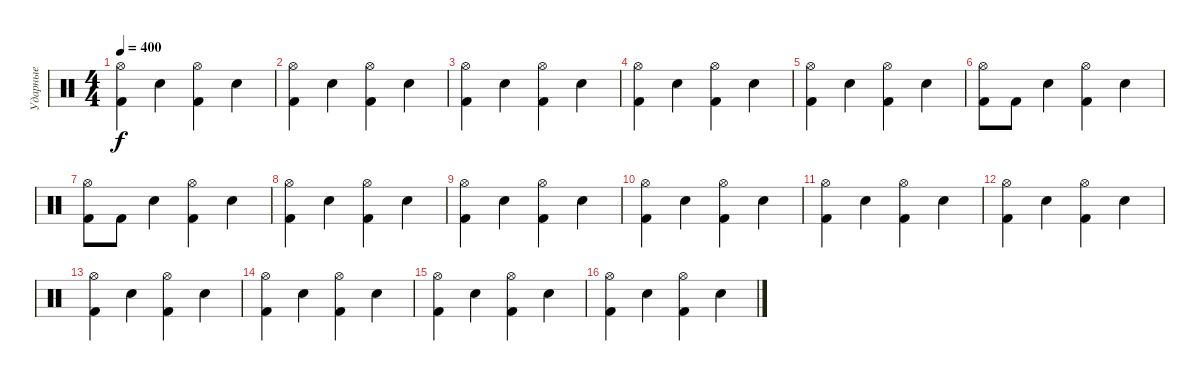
\track ("Ударные" "Ударные") {instrument percussion}
\staff {score}
\articulation defaults
\ts (4 4)
\tempo 400
\clef neutral
\ks c
("Kick (hit) 2" "Hi-Hat (open)").4{dy f} "Electric Snare (hit)".4 ("Kick (hit) 2" "Hi-Hat (open)").4 "Electric Snare (hit)".4 |
("Kick (hit) 2" "Hi-Hat (open)").4 "Electric Snare (hit)".4 ("Kick (hit) 2" "Hi-Hat (open)").4 "Electric Snare (hit)".4 |
("Kick (hit) 2" "Hi-Hat (open)").4 "Electric Snare (hit)".4 ("Kick (hit) 2" "Hi-Hat (open)").4 "Electric Snare (hit)".4 |
("Kick (hit) 2" "Hi-Hat (open)").4 "Electric Snare (hit)".4 ("Kick (hit) 2" "Hi-Hat (open)").4 "Electric Snare (hit)".4 |
("Kick (hit) 2" "Hi-Hat (open)").4 "Electric Snare (hit)".4 ("Kick (hit) 2" "Hi-Hat (open)").4 "Electric Snare (hit)".4 |
("Kick (hit) 2" "Hi-Hat (open)").8 "Kick (hit) 2".8 "Electric Snare (hit)".4 ("Kick (hit) 2" "Hi-Hat (open)").4 "Electric Snare (hit)".4 |
("Kick (hit) 2" "Hi-Hat (open)").8 "Kick (hit) 2".8 "Electric Snare (hit)".4 ("Kick (hit) 2" "Hi-Hat (open)").4 "Electric Snare (hit)".4 |
("Kick (hit) 2" "Hi-Hat (open)").4 "Electric Snare (hit)".4 ("Kick (hit) 2" "Hi-Hat (open)").4 "Electric Snare (hit)".4 |
("Kick (hit) 2" "Hi-Hat (open)").4 "Electric Snare (hit)".4 ("Kick (hit) 2" "Hi-Hat (open)").4 "Electric Snare (hit)".4 |
("Kick (hit) 2" "Hi-Hat (open)").4 "Electric Snare (hit)".4 ("Kick (hit) 2" "Hi-Hat (open)").4 "Electric Snare (hit)".4 |
("Kick (hit) 2" "Hi-Hat (open)").4 "Electric Snare (hit)".4 ("Kick (hit) 2" "Hi-Hat (open)").4 "Electric Snare (hit)".4 |
("Kick (hit) 2" "Hi-Hat (open)").4 "Electric Snare (hit)".4 ("Kick (hit) 2" "Hi-Hat (open)").4 "Electric Snare (hit)".4 |
("Kick (hit) 2" "Hi-Hat (open)").4 "Electric Snare (hit)".4 ("Kick (hit) 2" "Hi-Hat (open)").4 "Electric Snare (hit)".4 |
("Kick (hit) 2" "Hi-Hat (open)").4 "Electric Snare (hit)".4 ("Kick (hit) 2" "Hi-Hat (open)").4 "Electric Snare (hit)".4 |
("Kick (hit) 2" "Hi-Hat (open)").4 "Electric Snare (hit)".4 ("Kick (hit) 2" "Hi-Hat (open)").4 "Electric Snare (hit)".4 |
("Kick (hit) 2" "Hi-Hat (open)").4 "Electric Snare (hit)".4 ("Kick (hit) 2" "Hi-Hat (open)").4 "Electric Snare (hit)".4
